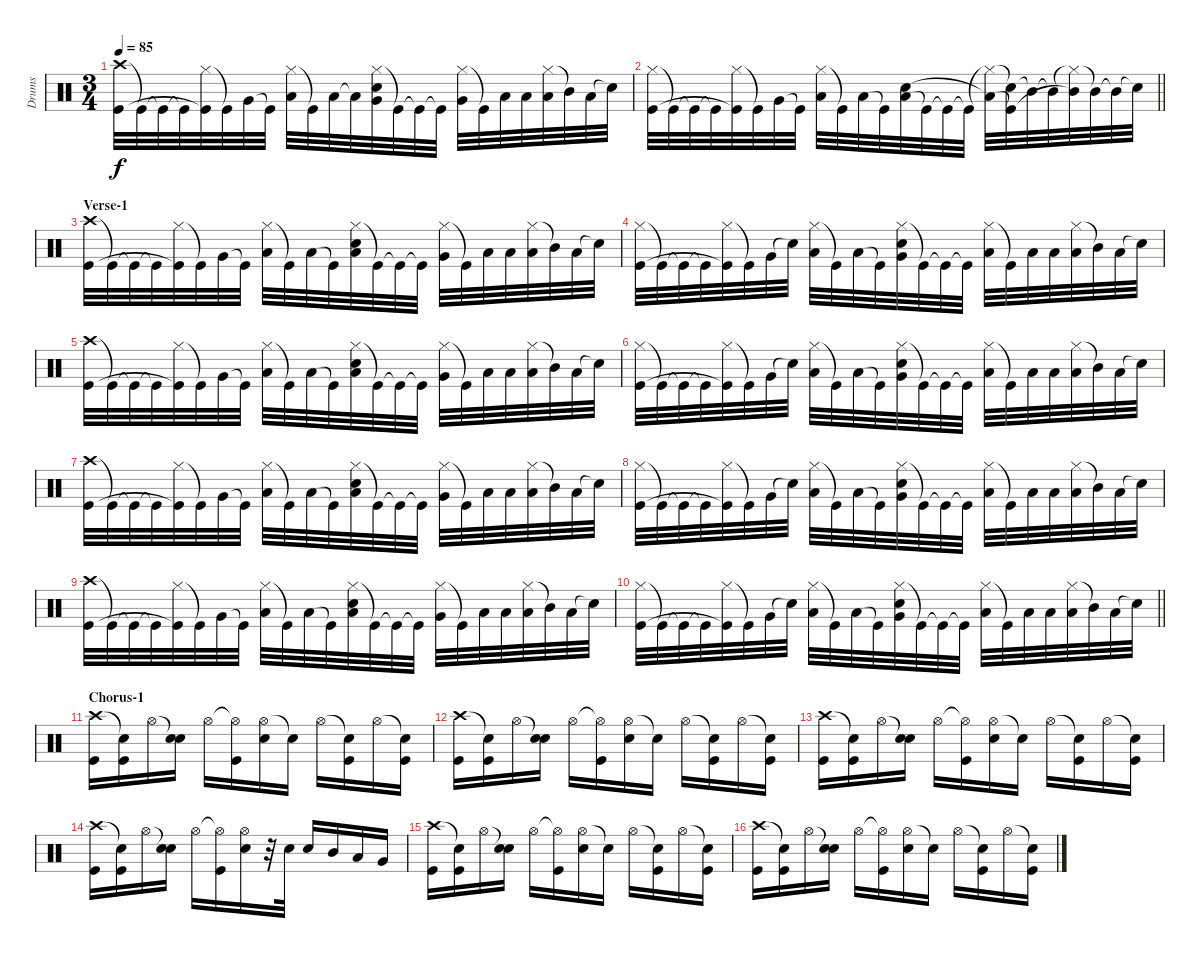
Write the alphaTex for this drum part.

\track ("Drums" "Drums") {instrument percussion}
\staff {score}
\articulation defaults
\ts (3 4)
\tempo 85
\clef neutral
\ks c
("Crash high (hit)" "Kick (hit)").32{dy f} "Kick (hit)"{t}.32 "Kick (hit)"{t}.32 "Kick (hit)"{t}.32 ("Hi-Hat (closed)" "Kick (hit)"{t}).32 "Kick (hit)"{t}.32 "Very Low Tom (hit)".32 "Kick (hit)"{t}.32 ("Hi-Hat (closed)" "Low Floor Tom (hit)").32 "Kick (hit)"{t}.32 "Low Floor Tom (hit)".32 "Low Floor Tom (hit)"{t}.32 ("Hi-Hat (closed)" "Very Low Tom (hit)" "Electric Snare (hit)").32 "Kick (hit)"{t}.32 "Kick (hit)"{t}.32 "Kick (hit)"{t}.32 ("Hi-Hat (closed)" "Very Low Tom (hit)").32 "Kick (hit)"{t}.32 "Low Floor Tom (hit)".32 "Low Floor Tom (hit)".32 ("Hi-Hat (closed)" "Low Floor Tom (hit)").32 "Mid Tom (hit)"{t}.32 "Low Floor Tom (hit)".32 "Snare (hit)"{t}.32 |
\barLineRight lightlight
("Hi-Hat (closed)" "Kick (hit)").32 "Kick (hit)"{t}.32 "Kick (hit)"{t}.32 "Kick (hit)"{t}.32 ("Hi-Hat (closed)" "Kick (hit)"{t}).32 "Kick (hit)"{t}.32 "Very Low Tom (hit)".32 "Kick (hit)"{t}.32 ("Hi-Hat (closed)" "Low Floor Tom (hit)").32 "Kick (hit)"{t}.32 "Low Floor Tom (hit)".32 "Kick (hit)"{t}.32 ("Low Floor Tom (hit)" "Electric Snare (hit)").32 "Kick (hit)"{t}.32 "Kick (hit)"{t}.32 "Kick (hit)"{t}.32 ("Hi-Hat (closed)"{t} "Low Tom (hit)"{t}).32 ("Snare (hit)"{t} "Kick (hit)"{t}).32 "Mid Tom (hit)"{t}.32 "Mid Tom (hit)"{t}.32 ("Hi-Hat (closed)"{t} "Mid Tom (hit)"{t}).32 "Mid Tom (hit)"{t}.32 "Mid Tom (hit)"{t}.32 "Snare (hit)"{t}.32 |
\section ("" "Verse-1")
("Crash high (hit)" "Kick (hit)").32 "Kick (hit)"{t}.32 "Kick (hit)"{t}.32 "Kick (hit)"{t}.32 ("Hi-Hat (closed)" "Kick (hit)"{t}).32 "Kick (hit)"{t}.32 "Very Low Tom (hit)".32 "Kick (hit)"{t}.32 ("Hi-Hat (closed)" "Low Floor Tom (hit)").32 "Kick (hit)"{t}.32 "Low Floor Tom (hit)".32 "Kick (hit)"{t}.32 ("Hi-Hat (closed)" "Low Floor Tom (hit)" "Electric Snare (hit)").32 "Kick (hit)"{t}.32 "Kick (hit)"{t}.32 "Kick (hit)"{t}.32 ("Hi-Hat (closed)" "Very Low Tom (hit)").32 "Kick (hit)"{t}.32 "Low Floor Tom (hit)".32 "Low Floor Tom (hit)".32 ("Hi-Hat (closed)" "Low Floor Tom (hit)").32 "Mid Tom (hit)"{t}.32 "Low Floor Tom (hit)".32 "Snare (hit)"{t}.32 |
("Hi-Hat (closed)" "Kick (hit)").32 "Kick (hit)"{t}.32 "Kick (hit)"{t}.32 "Kick (hit)"{t}.32 ("Hi-Hat (closed)" "Kick (hit)"{t}).32 "Kick (hit)"{t}.32 "Very Low Tom (hit)".32 "Snare (hit)"{t}.32 ("Hi-Hat (closed)" "Low Floor Tom (hit)").32 "Kick (hit)"{t}.32 "Low Floor Tom (hit)".32 "Kick (hit)"{t}.32 ("Hi-Hat (closed)" "Very Low Tom (hit)" "Electric Snare (hit)").32 "Kick (hit)"{t}.32 "Kick (hit)"{t}.32 "Kick (hit)"{t}.32 ("Hi-Hat (closed)" "Low Floor Tom (hit)").32 "Kick (hit)"{t}.32 "Low Floor Tom (hit)".32 "Low Floor Tom (hit)".32 ("Hi-Hat (closed)" "Low Floor Tom (hit)").32 "Mid Tom (hit)"{t}.32 "Low Floor Tom (hit)".32 "Snare (hit)"{t}.32 |
("Crash high (hit)" "Kick (hit)").32 "Kick (hit)"{t}.32 "Kick (hit)"{t}.32 "Kick (hit)"{t}.32 ("Hi-Hat (closed)" "Kick (hit)"{t}).32 "Kick (hit)"{t}.32 "Very Low Tom (hit)".32 "Kick (hit)"{t}.32 ("Hi-Hat (closed)" "Low Floor Tom (hit)").32 "Kick (hit)"{t}.32 "Low Floor Tom (hit)".32 "Kick (hit)"{t}.32 ("Hi-Hat (closed)" "Low Floor Tom (hit)" "Electric Snare (hit)").32 "Kick (hit)"{t}.32 "Kick (hit)"{t}.32 "Kick (hit)"{t}.32 ("Hi-Hat (closed)" "Very Low Tom (hit)").32 "Kick (hit)"{t}.32 "Low Floor Tom (hit)".32 "Low Floor Tom (hit)".32 ("Hi-Hat (closed)" "Low Floor Tom (hit)").32 "Mid Tom (hit)"{t}.32 "Low Floor Tom (hit)".32 "Snare (hit)"{t}.32 |
("Hi-Hat (closed)" "Kick (hit)").32 "Kick (hit)"{t}.32 "Kick (hit)"{t}.32 "Kick (hit)"{t}.32 ("Hi-Hat (closed)" "Kick (hit)"{t}).32 "Kick (hit)"{t}.32 "Very Low Tom (hit)".32 "Snare (hit)"{t}.32 ("Hi-Hat (closed)" "Low Floor Tom (hit)").32 "Kick (hit)"{t}.32 "Low Floor Tom (hit)".32 "Kick (hit)"{t}.32 ("Hi-Hat (closed)" "Very Low Tom (hit)" "Electric Snare (hit)").32 "Kick (hit)"{t}.32 "Kick (hit)"{t}.32 "Kick (hit)"{t}.32 ("Hi-Hat (closed)" "Low Floor Tom (hit)").32 "Kick (hit)"{t}.32 "Low Floor Tom (hit)".32 "Low Floor Tom (hit)".32 ("Hi-Hat (closed)" "Low Floor Tom (hit)").32 "Mid Tom (hit)"{t}.32 "Low Floor Tom (hit)".32 "Snare (hit)"{t}.32 |
("Crash high (hit)" "Kick (hit)").32 "Kick (hit)"{t}.32 "Kick (hit)"{t}.32 "Kick (hit)"{t}.32 ("Hi-Hat (closed)" "Kick (hit)"{t}).32 "Kick (hit)"{t}.32 "Very Low Tom (hit)".32 "Kick (hit)"{t}.32 ("Hi-Hat (closed)" "Low Floor Tom (hit)").32 "Kick (hit)"{t}.32 "Low Floor Tom (hit)".32 "Kick (hit)"{t}.32 ("Hi-Hat (closed)" "Low Floor Tom (hit)" "Electric Snare (hit)").32 "Kick (hit)"{t}.32 "Kick (hit)"{t}.32 "Kick (hit)"{t}.32 ("Hi-Hat (closed)" "Very Low Tom (hit)").32 "Kick (hit)"{t}.32 "Low Floor Tom (hit)".32 "Low Floor Tom (hit)".32 ("Hi-Hat (closed)" "Low Floor Tom (hit)").32 "Mid Tom (hit)"{t}.32 "Low Floor Tom (hit)".32 "Snare (hit)"{t}.32 |
("Hi-Hat (closed)" "Kick (hit)").32 "Kick (hit)"{t}.32 "Kick (hit)"{t}.32 "Kick (hit)"{t}.32 ("Hi-Hat (closed)" "Kick (hit)"{t}).32 "Kick (hit)"{t}.32 "Very Low Tom (hit)".32 "Snare (hit)"{t}.32 ("Hi-Hat (closed)" "Low Floor Tom (hit)").32 "Kick (hit)"{t}.32 "Low Floor Tom (hit)".32 "Kick (hit)"{t}.32 ("Hi-Hat (closed)" "Very Low Tom (hit)" "Electric Snare (hit)").32 "Kick (hit)"{t}.32 "Kick (hit)"{t}.32 "Kick (hit)"{t}.32 ("Hi-Hat (closed)" "Low Floor Tom (hit)").32 "Kick (hit)"{t}.32 "Low Floor Tom (hit)".32 "Low Floor Tom (hit)".32 ("Hi-Hat (closed)" "Low Floor Tom (hit)").32 "Mid Tom (hit)"{t}.32 "Low Floor Tom (hit)".32 "Snare (hit)"{t}.32 |
("Crash high (hit)" "Kick (hit)").32 "Kick (hit)"{t}.32 "Kick (hit)"{t}.32 "Kick (hit)"{t}.32 ("Hi-Hat (closed)" "Kick (hit)"{t}).32 "Kick (hit)"{t}.32 "Very Low Tom (hit)".32 "Kick (hit)"{t}.32 ("Hi-Hat (closed)" "Low Floor Tom (hit)").32 "Kick (hit)"{t}.32 "Low Floor Tom (hit)".32 "Kick (hit)"{t}.32 ("Hi-Hat (closed)" "Low Floor Tom (hit)" "Electric Snare (hit)").32 "Kick (hit)"{t}.32 "Kick (hit)"{t}.32 "Kick (hit)"{t}.32 ("Hi-Hat (closed)" "Very Low Tom (hit)").32 "Kick (hit)"{t}.32 "Low Floor Tom (hit)".32 "Low Floor Tom (hit)".32 ("Hi-Hat (closed)" "Low Floor Tom (hit)").32 "Mid Tom (hit)"{t}.32 "Low Floor Tom (hit)".32 "Snare (hit)"{t}.32 |
\barLineRight lightlight
("Hi-Hat (closed)" "Kick (hit)").32 "Kick (hit)"{t}.32 "Kick (hit)"{t}.32 "Kick (hit)"{t}.32 ("Hi-Hat (closed)" "Kick (hit)"{t}).32 "Kick (hit)"{t}.32 "Very Low Tom (hit)".32 "Snare (hit)"{t}.32 ("Hi-Hat (closed)" "Low Floor Tom (hit)").32 "Kick (hit)"{t}.32 "Low Floor Tom (hit)".32 "Kick (hit)"{t}.32 ("Hi-Hat (closed)" "Very Low Tom (hit)" "Electric Snare (hit)").32 "Kick (hit)"{t}.32 "Kick (hit)"{t}.32 "Kick (hit)"{t}.32 ("Hi-Hat (closed)" "Low Floor Tom (hit)").32 "Kick (hit)"{t}.32 "Low Floor Tom (hit)".32 "Low Floor Tom (hit)".32 ("Hi-Hat (closed)" "Low Floor Tom (hit)").32 "Mid Tom (hit)"{t}.32 "Low Floor Tom (hit)".32 "Snare (hit)"{t}.32 |
\section ("" "Chorus-1")
("Crash high (hit)" "Kick (hit)").16 ("Snare (hit)"{t} "Kick (hit)").16 "Hi-Hat (open)".16 ("Snare (hit)"{t} "Electric Snare (hit)").16 "Hi-Hat (open)".16 ("Hi-Hat (open)"{t} "Kick (hit)").16 ("Hi-Hat (open)" "Electric Snare (hit)").16 "Snare (hit)"{t}.16 "Hi-Hat (open)".16 ("Snare (hit)"{t} "Kick (hit)").16 "Hi-Hat (open)".16 ("Snare (hit)"{t} "Kick (hit)").16 |
("Crash high (hit)" "Kick (hit)").16 ("Snare (hit)"{t} "Kick (hit)").16 "Hi-Hat (open)".16 ("Snare (hit)"{t} "Electric Snare (hit)").16 "Hi-Hat (open)".16 ("Hi-Hat (open)"{t} "Kick (hit)").16 ("Hi-Hat (open)" "Electric Snare (hit)").16 "Snare (hit)"{t}.16 "Hi-Hat (open)".16 ("Snare (hit)"{t} "Kick (hit)").16 "Hi-Hat (open)".16 ("Snare (hit)"{t} "Kick (hit)").16 |
("Crash high (hit)" "Kick (hit)").16 ("Snare (hit)"{t} "Kick (hit)").16 "Hi-Hat (open)".16 ("Snare (hit)"{t} "Electric Snare (hit)").16 "Hi-Hat (open)".16 ("Hi-Hat (open)"{t} "Kick (hit)").16 ("Hi-Hat (open)" "Electric Snare (hit)").16 "Snare (hit)"{t}.16 "Hi-Hat (open)".16 ("Snare (hit)"{t} "Kick (hit)").16 "Hi-Hat (open)".16 ("Snare (hit)"{t} "Kick (hit)").16 |
("Crash high (hit)" "Kick (hit)").16 ("Snare (hit)"{t} "Kick (hit)").16 "Hi-Hat (open)".16 ("Snare (hit)"{t} "Electric Snare (hit)").16 "Hi-Hat (open)".16 ("Hi-Hat (open)"{t} "Kick (hit)").16 ("Hi-Hat (open)" "Electric Snare (hit)").16 r.32 "Electric Snare (hit)".32 "Electric Snare (hit)".16 "Mid Tom (hit)".16 "Low Tom (hit)".16 "Very Low Tom (hit)".16 |
("Crash high (hit)" "Kick (hit)").16 ("Snare (hit)"{t} "Kick (hit)").16 "Hi-Hat (open)".16 ("Snare (hit)"{t} "Electric Snare (hit)").16 "Hi-Hat (open)".16 ("Hi-Hat (open)"{t} "Kick (hit)").16 ("Hi-Hat (open)" "Electric Snare (hit)").16 "Snare (hit)"{t}.16 "Hi-Hat (open)".16 ("Snare (hit)"{t} "Kick (hit)").16 "Hi-Hat (open)".16 ("Snare (hit)"{t} "Kick (hit)").16 |
("Crash high (hit)" "Kick (hit)").16 ("Snare (hit)"{t} "Kick (hit)").16 "Hi-Hat (open)".16 ("Snare (hit)"{t} "Electric Snare (hit)").16 "Hi-Hat (open)".16 ("Hi-Hat (open)"{t} "Kick (hit)").16 ("Hi-Hat (open)" "Electric Snare (hit)").16 "Snare (hit)"{t}.16 "Hi-Hat (open)".16 ("Snare (hit)"{t} "Kick (hit)").16 "Hi-Hat (open)".16 ("Snare (hit)"{t} "Kick (hit)").16
